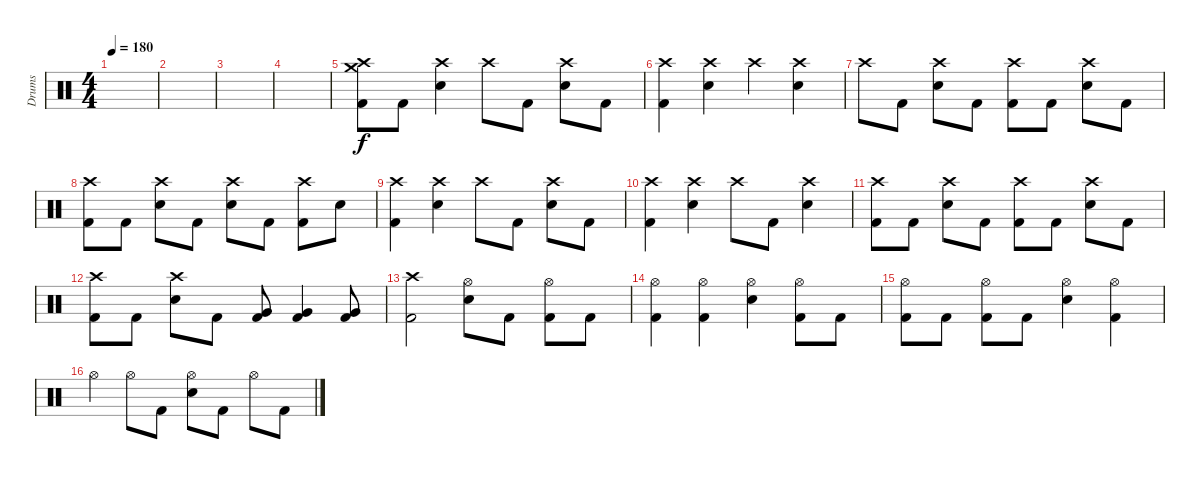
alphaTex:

\track ("Drums" "Drums") {instrument percussion}
\staff {score}
\articulation defaults
\ts (4 4)
\tempo 180
\clef neutral
\ks c
|
|
|
|
("Crash high (hit)" "Crash medium (hit)" "Kick (hit) 2").8 "Kick (hit) 2".8 ("Crash high (hit)" "Electric Snare (hit)").4 "Crash high (hit)".8 "Kick (hit) 2".8 ("Crash high (hit)" "Electric Snare (hit)").8 "Kick (hit) 2".8 |
("Crash high (hit)" "Kick (hit) 2").4 ("Crash high (hit)" "Electric Snare (hit)").4 "Crash high (hit)".4 ("Crash high (hit)" "Electric Snare (hit)").4 |
"Crash high (hit)".8 "Kick (hit) 2".8 ("Crash high (hit)" "Electric Snare (hit)").8 "Kick (hit) 2".8 ("Crash high (hit)" "Kick (hit) 2").8 "Kick (hit) 2".8 ("Crash high (hit)" "Electric Snare (hit)").8 "Kick (hit) 2".8 |
("Crash high (hit)" "Kick (hit) 2").8 "Kick (hit) 2".8 ("Crash high (hit)" "Electric Snare (hit)").8 "Kick (hit) 2".8 ("Crash high (hit)" "Electric Snare (hit)").8 "Kick (hit) 2".8 ("Crash high (hit)" "Kick (hit) 2").8 "Electric Snare (hit)".8 |
("Crash high (hit)" "Kick (hit) 2").4 ("Crash high (hit)" "Electric Snare (hit)").4 "Crash high (hit)".8 "Kick (hit) 2".8 ("Crash high (hit)" "Electric Snare (hit)").8 "Kick (hit) 2".8 |
("Crash high (hit)" "Kick (hit) 2").4 ("Crash high (hit)" "Electric Snare (hit)").4 "Crash high (hit)".8 "Kick (hit) 2".8 ("Crash high (hit)" "Electric Snare (hit)").4 |
("Crash high (hit)" "Kick (hit) 2").8 "Kick (hit) 2".8 ("Crash high (hit)" "Electric Snare (hit)").8 "Kick (hit) 2".8 ("Crash high (hit)" "Kick (hit) 2").8 "Kick (hit) 2".8 ("Crash high (hit)" "Electric Snare (hit)").8 "Kick (hit) 2".8 |
("Crash high (hit)" "Kick (hit) 2").8 "Kick (hit) 2".8 ("Crash high (hit)" "Electric Snare (hit)").8 "Kick (hit) 2".8 ("Very Low Tom (hit)" "Kick (hit) 2").8 ("Very Low Tom (hit)" "Kick (hit) 2").4 ("Very Low Tom (hit)" "Kick (hit) 2").8 |
("Crash high (hit)" "Kick (hit) 2").2 ("Hi-Hat (open)" "Electric Snare (hit)").8 "Kick (hit) 2".8 ("Hi-Hat (open)" "Kick (hit) 2").8 "Kick (hit) 2".8 |
("Hi-Hat (open)" "Kick (hit) 2").4 ("Hi-Hat (open)" "Kick (hit) 2").4 ("Hi-Hat (open)" "Electric Snare (hit)").4 ("Hi-Hat (open)" "Kick (hit) 2").8 "Kick (hit) 2".8 |
("Hi-Hat (open)" "Kick (hit) 2").8 "Kick (hit) 2".8 ("Hi-Hat (open)" "Kick (hit) 2").8 "Kick (hit) 2".8 ("Hi-Hat (open)" "Electric Snare (hit)").4 ("Hi-Hat (open)" "Kick (hit) 2").4 |
"Hi-Hat (open)".4 "Hi-Hat (open)".8 "Kick (hit) 2".8 ("Hi-Hat (open)" "Electric Snare (hit)").8 "Kick (hit) 2".8 "Hi-Hat (open)".8 "Kick (hit) 2".8
